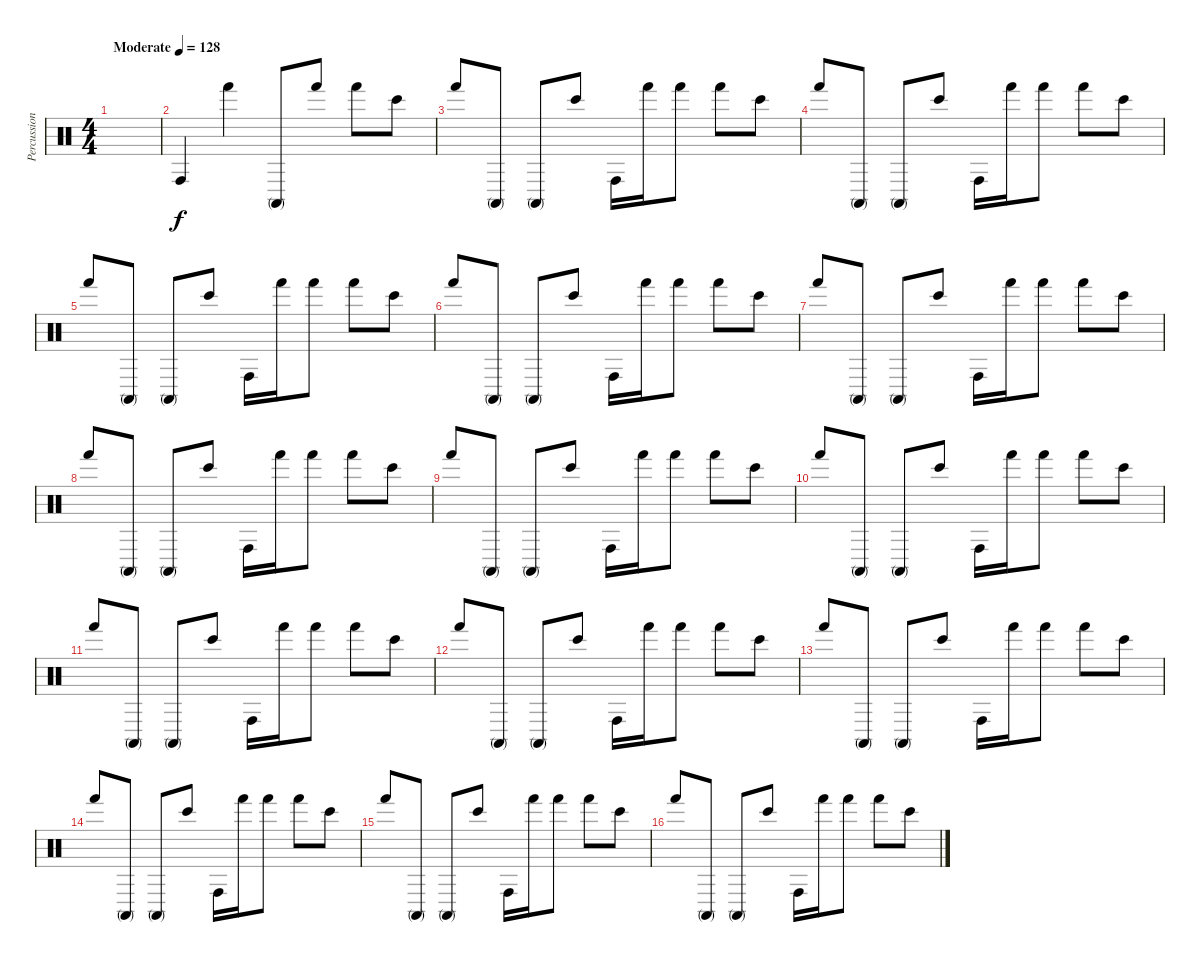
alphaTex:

\track ("Percussion" "Percussion") {instrument percussion}
\staff {score}
\articulation defaults
\ts (4 4)
\tempo (128 "Moderate")
\clef neutral
\ks c
|
"Conga high (hit)".4 "Hand (hit)".4 "Conga high (mute)".8 "Hand (hit)".8 "Hand (hit)".8 "Bongo High (hit)".8 |
"Hand (hit)".8 "Conga high (mute)".8 "Conga high (mute)".8 "Bongo High (hit)".8 "Conga high (hit)".16 "Hand (hit)".16 "Hand (hit)".8 "Hand (hit)".8 "Bongo High (hit)".8 |
"Hand (hit)".8 "Conga high (mute)".8 "Conga high (mute)".8 "Bongo High (hit)".8 "Conga high (hit)".16 "Hand (hit)".16 "Hand (hit)".8 "Hand (hit)".8 "Bongo High (hit)".8 |
"Hand (hit)".8 "Conga high (mute)".8 "Conga high (mute)".8 "Bongo High (hit)".8 "Conga high (hit)".16 "Hand (hit)".16 "Hand (hit)".8 "Hand (hit)".8 "Bongo High (hit)".8 |
"Hand (hit)".8 "Conga high (mute)".8 "Conga high (mute)".8 "Bongo High (hit)".8 "Conga high (hit)".16 "Hand (hit)".16 "Hand (hit)".8 "Hand (hit)".8 "Bongo High (hit)".8 |
"Hand (hit)".8 "Conga high (mute)".8 "Conga high (mute)".8 "Bongo High (hit)".8 "Conga high (hit)".16 "Hand (hit)".16 "Hand (hit)".8 "Hand (hit)".8 "Bongo High (hit)".8 |
"Hand (hit)".8 "Conga high (mute)".8 "Conga high (mute)".8 "Bongo High (hit)".8 "Conga high (hit)".16 "Hand (hit)".16 "Hand (hit)".8 "Hand (hit)".8 "Bongo High (hit)".8 |
"Hand (hit)".8 "Conga high (mute)".8 "Conga high (mute)".8 "Bongo High (hit)".8 "Conga high (hit)".16 "Hand (hit)".16 "Hand (hit)".8 "Hand (hit)".8 "Bongo High (hit)".8 |
"Hand (hit)".8 "Conga high (mute)".8 "Conga high (mute)".8 "Bongo High (hit)".8 "Conga high (hit)".16 "Hand (hit)".16 "Hand (hit)".8 "Hand (hit)".8 "Bongo High (hit)".8 |
"Hand (hit)".8 "Conga high (mute)".8 "Conga high (mute)".8 "Bongo High (hit)".8 "Conga high (hit)".16 "Hand (hit)".16 "Hand (hit)".8 "Hand (hit)".8 "Bongo High (hit)".8 |
"Hand (hit)".8 "Conga high (mute)".8 "Conga high (mute)".8 "Bongo High (hit)".8 "Conga high (hit)".16 "Hand (hit)".16 "Hand (hit)".8 "Hand (hit)".8 "Bongo High (hit)".8 |
"Hand (hit)".8 "Conga high (mute)".8 "Conga high (mute)".8 "Bongo High (hit)".8 "Conga high (hit)".16 "Hand (hit)".16 "Hand (hit)".8 "Hand (hit)".8 "Bongo High (hit)".8 |
"Hand (hit)".8 "Conga high (mute)".8 "Conga high (mute)".8 "Bongo High (hit)".8 "Conga high (hit)".16 "Hand (hit)".16 "Hand (hit)".8 "Hand (hit)".8 "Bongo High (hit)".8 |
"Hand (hit)".8 "Conga high (mute)".8 "Conga high (mute)".8 "Bongo High (hit)".8 "Conga high (hit)".16 "Hand (hit)".16 "Hand (hit)".8 "Hand (hit)".8 "Bongo High (hit)".8 |
"Hand (hit)".8 "Conga high (mute)".8 "Conga high (mute)".8 "Bongo High (hit)".8 "Conga high (hit)".16 "Hand (hit)".16 "Hand (hit)".8 "Hand (hit)".8 "Bongo High (hit)".8
